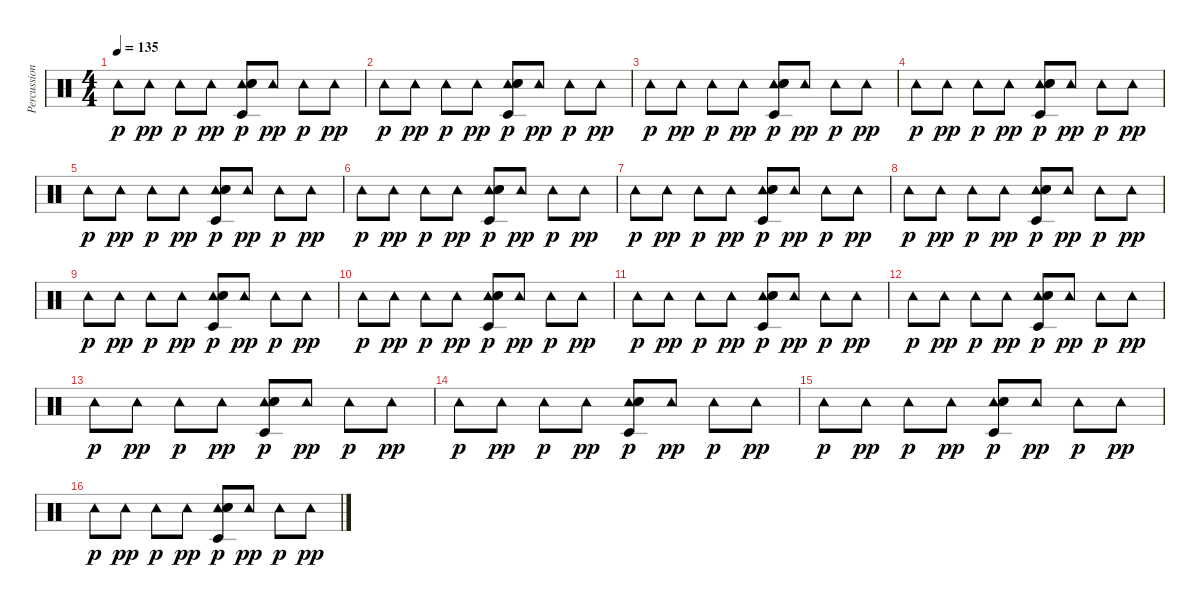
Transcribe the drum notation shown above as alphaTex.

\track ("Percussion" "Percussion") {instrument percussion}
\staff {score}
\articulation defaults
\ts (4 4)
\tempo 135
\clef neutral
\ks c "Tambourine (hit)".8{dy p} "Tambourine (hit)".8{dy pp} "Tambourine (hit)".8{dy p} "Tambourine (hit)".8{dy pp}
("Tambourine (hit)" "Hand Clap (hit)" "Snare (hit) 2" "Timbale low (hit)").8{dy p} "Tambourine (hit)".8{dy pp} "Tambourine (hit)".8{dy p} "Tambourine (hit)".8{dy pp} |
"Tambourine (hit)".8{dy p} "Tambourine (hit)".8{dy pp} "Tambourine (hit)".8{dy p} "Tambourine (hit)".8{dy pp} ("Tambourine (hit)" "Hand Clap (hit)" "Snare (hit) 2" "Timbale low (hit)").8{dy p} "Tambourine (hit)".8{dy pp} "Tambourine (hit)".8{dy p} "Tambourine (hit)".8{dy pp} |
"Tambourine (hit)".8{dy p} "Tambourine (hit)".8{dy pp} "Tambourine (hit)".8{dy p} "Tambourine (hit)".8{dy pp} ("Tambourine (hit)" "Hand Clap (hit)" "Snare (hit) 2" "Timbale low (hit)").8{dy p} "Tambourine (hit)".8{dy pp} "Tambourine (hit)".8{dy p} "Tambourine (hit)".8{dy pp} |
"Tambourine (hit)".8{dy p} "Tambourine (hit)".8{dy pp} "Tambourine (hit)".8{dy p} "Tambourine (hit)".8{dy pp} ("Tambourine (hit)" "Hand Clap (hit)" "Snare (hit) 2" "Timbale low (hit)").8{dy p} "Tambourine (hit)".8{dy pp} "Tambourine (hit)".8{dy p} "Tambourine (hit)".8{dy pp} |
"Tambourine (hit)".8{dy p} "Tambourine (hit)".8{dy pp} "Tambourine (hit)".8{dy p} "Tambourine (hit)".8{dy pp} ("Tambourine (hit)" "Hand Clap (hit)" "Snare (hit) 2" "Timbale low (hit)").8{dy p} "Tambourine (hit)".8{dy pp} "Tambourine (hit)".8{dy p} "Tambourine (hit)".8{dy pp} |
"Tambourine (hit)".8{dy p} "Tambourine (hit)".8{dy pp} "Tambourine (hit)".8{dy p} "Tambourine (hit)".8{dy pp} ("Tambourine (hit)" "Hand Clap (hit)" "Snare (hit) 2" "Timbale low (hit)").8{dy p} "Tambourine (hit)".8{dy pp} "Tambourine (hit)".8{dy p} "Tambourine (hit)".8{dy pp} |
"Tambourine (hit)".8{dy p} "Tambourine (hit)".8{dy pp} "Tambourine (hit)".8{dy p} "Tambourine (hit)".8{dy pp} ("Tambourine (hit)" "Hand Clap (hit)" "Snare (hit) 2" "Timbale low (hit)").8{dy p} "Tambourine (hit)".8{dy pp} "Tambourine (hit)".8{dy p} "Tambourine (hit)".8{dy pp} |
"Tambourine (hit)".8{dy p} "Tambourine (hit)".8{dy pp} "Tambourine (hit)".8{dy p} "Tambourine (hit)".8{dy pp} ("Tambourine (hit)" "Hand Clap (hit)" "Snare (hit) 2" "Timbale low (hit)").8{dy p} "Tambourine (hit)".8{dy pp} "Tambourine (hit)".8{dy p} "Tambourine (hit)".8{dy pp} |
"Tambourine (hit)".8{dy p} "Tambourine (hit)".8{dy pp} "Tambourine (hit)".8{dy p} "Tambourine (hit)".8{dy pp} ("Tambourine (hit)" "Hand Clap (hit)" "Snare (hit) 2" "Timbale low (hit)").8{dy p} "Tambourine (hit)".8{dy pp} "Tambourine (hit)".8{dy p} "Tambourine (hit)".8{dy pp} |
"Tambourine (hit)".8{dy p} "Tambourine (hit)".8{dy pp} "Tambourine (hit)".8{dy p} "Tambourine (hit)".8{dy pp} ("Tambourine (hit)" "Hand Clap (hit)" "Snare (hit) 2" "Timbale low (hit)").8{dy p} "Tambourine (hit)".8{dy pp} "Tambourine (hit)".8{dy p} "Tambourine (hit)".8{dy pp} |
"Tambourine (hit)".8{dy p} "Tambourine (hit)".8{dy pp} "Tambourine (hit)".8{dy p} "Tambourine (hit)".8{dy pp} ("Tambourine (hit)" "Hand Clap (hit)" "Snare (hit) 2" "Timbale low (hit)").8{dy p} "Tambourine (hit)".8{dy pp} "Tambourine (hit)".8{dy p} "Tambourine (hit)".8{dy pp} |
"Tambourine (hit)".8{dy p} "Tambourine (hit)".8{dy pp} "Tambourine (hit)".8{dy p} "Tambourine (hit)".8{dy pp} ("Tambourine (hit)" "Hand Clap (hit)" "Snare (hit) 2" "Timbale low (hit)").8{dy p} "Tambourine (hit)".8{dy pp} "Tambourine (hit)".8{dy p} "Tambourine (hit)".8{dy pp} |
"Tambourine (hit)".8{dy p} "Tambourine (hit)".8{dy pp} "Tambourine (hit)".8{dy p} "Tambourine (hit)".8{dy pp} ("Tambourine (hit)" "Hand Clap (hit)" "Snare (hit) 2" "Timbale low (hit)").8{dy p} "Tambourine (hit)".8{dy pp} "Tambourine (hit)".8{dy p} "Tambourine (hit)".8{dy pp} |
"Tambourine (hit)".8{dy p} "Tambourine (hit)".8{dy pp} "Tambourine (hit)".8{dy p} "Tambourine (hit)".8{dy pp} ("Tambourine (hit)" "Hand Clap (hit)" "Snare (hit) 2" "Timbale low (hit)").8{dy p} "Tambourine (hit)".8{dy pp} "Tambourine (hit)".8{dy p} "Tambourine (hit)".8{dy pp} |
"Tambourine (hit)".8{dy p} "Tambourine (hit)".8{dy pp} "Tambourine (hit)".8{dy p} "Tambourine (hit)".8{dy pp} ("Tambourine (hit)" "Hand Clap (hit)" "Snare (hit) 2" "Timbale low (hit)").8{dy p} "Tambourine (hit)".8{dy pp} "Tambourine (hit)".8{dy p} "Tambourine (hit)".8{dy pp} |
"Tambourine (hit)".8{dy p} "Tambourine (hit)".8{dy pp} "Tambourine (hit)".8{dy p} "Tambourine (hit)".8{dy pp} ("Tambourine (hit)" "Hand Clap (hit)" "Snare (hit) 2" "Timbale low (hit)").8{dy p} "Tambourine (hit)".8{dy pp} "Tambourine (hit)".8{dy p} "Tambourine (hit)".8{dy pp}
